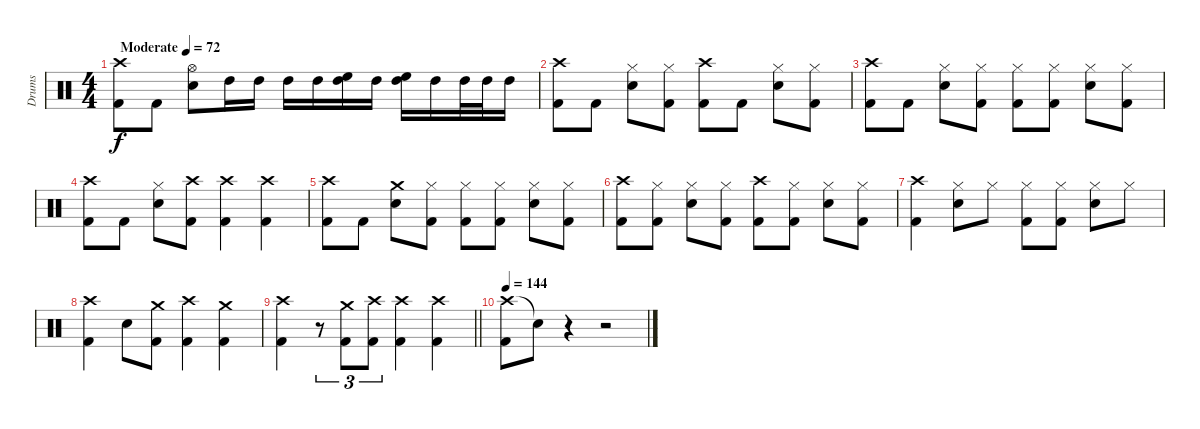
\track ("Drums" "Drums") {instrument percussion}
\staff {score}
\articulation defaults
\ts (4 4)
\tempo (72 "Moderate")
\clef neutral
\ks c
("Crash high (hit)" "Kick (hit) 2").8{dy f volume 3} "Kick (hit) 2".8{volume 11} ("Hi-Hat (open)" "Snare (hit) 2").8 "High Tom (hit)".16 "High Tom (hit)".16 "High Tom (hit)".16 "High Tom (hit)".16 ("High Tom (hit)" "High Floor Tom (hit)").16 "High Tom (hit)".16 ("High Tom (hit)" "High Floor Tom (hit)").16 "High Tom (hit)".16 "High Tom (hit)".32 "High Tom (hit)".32 "High Tom (hit)".16 |
("Crash high (hit)" "Kick (hit) 2").8 "Kick (hit) 2".8 ("Hi-Hat (closed)" "Snare (hit) 2").8 ("Hi-Hat (closed)" "Kick (hit) 2").8 ("Crash high (hit)" "Kick (hit) 2").8 "Kick (hit) 2".8 ("Hi-Hat (closed)" "Snare (hit) 2").8 ("Hi-Hat (closed)" "Kick (hit) 2").8 |
("Crash high (hit)" "Kick (hit) 2").8 "Kick (hit) 2".8 ("Hi-Hat (closed)" "Snare (hit) 2").8 ("Hi-Hat (closed)" "Kick (hit) 2").8 ("Hi-Hat (closed)" "Kick (hit) 2").8 ("Hi-Hat (closed)" "Kick (hit) 2").8 ("Hi-Hat (closed)" "Snare (hit) 2").8 ("Hi-Hat (closed)" "Kick (hit) 2").8 |
("Crash high (hit)" "Kick (hit) 2").8 "Kick (hit) 2".8 ("Hi-Hat (closed)" "Snare (hit) 2").8 ("Crash high (hit)" "Kick (hit) 2").8 ("Crash high (hit)" "Kick (hit) 2").4 ("Crash high (hit)" "Kick (hit) 2").4 |
("Crash high (hit)" "Kick (hit) 2").8 "Kick (hit) 2".8 ("Crash medium (hit)" "Snare (hit) 2").8 ("Hi-Hat (closed)" "Kick (hit) 2").8 ("Hi-Hat (closed)" "Kick (hit) 2").8 ("Hi-Hat (closed)" "Kick (hit) 2").8 ("Hi-Hat (closed)" "Snare (hit) 2").8 ("Hi-Hat (closed)" "Kick (hit) 2").8 |
("Crash high (hit)" "Kick (hit) 2").8 ("Hi-Hat (closed)" "Kick (hit) 2").8 ("Hi-Hat (closed)" "Snare (hit) 2").8 ("Hi-Hat (closed)" "Kick (hit) 2").8 ("Crash high (hit)" "Kick (hit) 2").8 ("Hi-Hat (closed)" "Kick (hit) 2").8 ("Hi-Hat (closed)" "Snare (hit) 2").8 ("Hi-Hat (closed)" "Kick (hit) 2").8 |
("Crash high (hit)" "Kick (hit) 2").4 ("Hi-Hat (closed)" "Snare (hit) 2").8 "Hi-Hat (closed)".8 ("Hi-Hat (closed)" "Kick (hit) 2").8 ("Hi-Hat (closed)" "Kick (hit) 2").8 ("Hi-Hat (closed)" "Snare (hit) 2").8 "Hi-Hat (closed)".8 |
("Crash high (hit)" "Kick (hit) 2").4 "Snare (hit) 2".8 ("Crash medium (hit)" "Kick (hit) 2").8 ("Crash high (hit)" "Kick (hit) 2").4 ("Crash medium (hit)" "Kick (hit) 2").4 |
\barLineRight lightlight
("Crash high (hit)" "Kick (hit) 2").4 r.8{tu (3 2)} ("Crash medium (hit)" "Kick (hit) 2").8{tu (3 2)} ("Crash high (hit)" "Kick (hit) 2").8{tu (3 2)} ("Crash high (hit)" "Kick (hit) 2").4 ("Crash high (hit)" "Kick (hit) 2").4 |
\tempo 144
("Crash high (hit)" "Kick (hit) 2").8 "Snare (hit)"{t}.8 r.4 r.2
